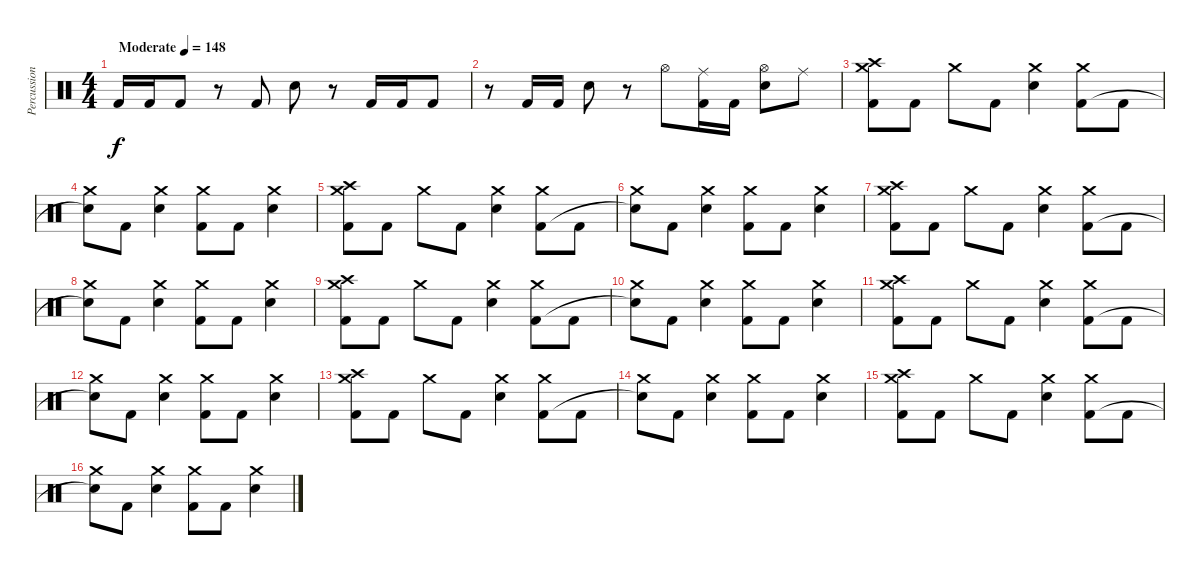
\track ("Percussion" "Percussion") {instrument percussion}
\staff {score}
\articulation defaults
\ts (4 4)
\tempo (148 "Moderate")
\clef neutral
\ks c "Kick (hit) 2".16{dy f volume 2} "Kick (hit) 2".16{volume 12} "Kick (hit) 2".8
r.8 "Kick (hit) 2".8 "Electric Snare (hit)".8 r.8 "Kick (hit) 2".16 "Kick (hit) 2".16 "Kick (hit) 2".8 |
r.8 "Kick (hit) 2".16 "Kick (hit) 2".16 "Electric Snare (hit)".8 r.8 "Hi-Hat (open)".8 ("Ride (middle)" "Kick (hit) 2").16 "Kick (hit) 2".16 ("Hi-Hat (open)" "Electric Snare (hit)").8 "Ride (middle)".8 |
("Crash medium (hit)" "Crash high (hit)" "Kick (hit) 2").8 "Kick (hit) 2".8 "Crash medium (hit)".8 "Kick (hit) 2".8 ("Crash medium (hit)" "Electric Snare (hit)").4 ("Crash medium (hit)" "Kick (hit) 2").8 "Kick (hit) 2".8 |
("Crash medium (hit)" "Snare (hit)"{t}).8 "Kick (hit) 2".8 ("Crash medium (hit)" "Electric Snare (hit)").4 ("Crash medium (hit)" "Kick (hit) 2").8 "Kick (hit) 2".8 ("Crash medium (hit)" "Electric Snare (hit)").4 |
("Crash medium (hit)" "Crash high (hit)" "Kick (hit) 2").8 "Kick (hit) 2".8 "Crash medium (hit)".8 "Kick (hit) 2".8 ("Crash medium (hit)" "Electric Snare (hit)").4 ("Crash medium (hit)" "Kick (hit) 2").8 "Kick (hit) 2".8 |
("Crash medium (hit)" "Snare (hit)"{t}).8 "Kick (hit) 2".8 ("Crash medium (hit)" "Electric Snare (hit)").4 ("Crash medium (hit)" "Kick (hit) 2").8 "Kick (hit) 2".8 ("Crash medium (hit)" "Electric Snare (hit)").4 |
("Crash medium (hit)" "Crash high (hit)" "Kick (hit) 2").8 "Kick (hit) 2".8 "Crash medium (hit)".8 "Kick (hit) 2".8 ("Crash medium (hit)" "Electric Snare (hit)").4 ("Crash medium (hit)" "Kick (hit) 2").8 "Kick (hit) 2".8 |
("Crash medium (hit)" "Snare (hit)"{t}).8 "Kick (hit) 2".8 ("Crash medium (hit)" "Electric Snare (hit)").4 ("Crash medium (hit)" "Kick (hit) 2").8 "Kick (hit) 2".8 ("Crash medium (hit)" "Electric Snare (hit)").4 |
("Crash medium (hit)" "Crash high (hit)" "Kick (hit) 2").8 "Kick (hit) 2".8 "Crash medium (hit)".8 "Kick (hit) 2".8 ("Crash medium (hit)" "Electric Snare (hit)").4 ("Crash medium (hit)" "Kick (hit) 2").8 "Kick (hit) 2".8 |
("Crash medium (hit)" "Snare (hit)"{t}).8 "Kick (hit) 2".8 ("Crash medium (hit)" "Electric Snare (hit)").4 ("Crash medium (hit)" "Kick (hit) 2").8 "Kick (hit) 2".8 ("Crash medium (hit)" "Electric Snare (hit)").4 |
("Crash medium (hit)" "Crash high (hit)" "Kick (hit) 2").8 "Kick (hit) 2".8 "Crash medium (hit)".8 "Kick (hit) 2".8 ("Crash medium (hit)" "Electric Snare (hit)").4 ("Crash medium (hit)" "Kick (hit) 2").8 "Kick (hit) 2".8 |
("Crash medium (hit)" "Snare (hit)"{t}).8 "Kick (hit) 2".8 ("Crash medium (hit)" "Electric Snare (hit)").4 ("Crash medium (hit)" "Kick (hit) 2").8 "Kick (hit) 2".8 ("Crash medium (hit)" "Electric Snare (hit)").4 |
("Crash medium (hit)" "Crash high (hit)" "Kick (hit) 2").8 "Kick (hit) 2".8 "Crash medium (hit)".8 "Kick (hit) 2".8 ("Crash medium (hit)" "Electric Snare (hit)").4 ("Crash medium (hit)" "Kick (hit) 2").8 "Kick (hit) 2".8 |
("Crash medium (hit)" "Snare (hit)"{t}).8 "Kick (hit) 2".8 ("Crash medium (hit)" "Electric Snare (hit)").4 ("Crash medium (hit)" "Kick (hit) 2").8 "Kick (hit) 2".8 ("Crash medium (hit)" "Electric Snare (hit)").4 |
("Crash medium (hit)" "Crash high (hit)" "Kick (hit) 2").8 "Kick (hit) 2".8 "Crash medium (hit)".8 "Kick (hit) 2".8 ("Crash medium (hit)" "Electric Snare (hit)").4 ("Crash medium (hit)" "Kick (hit) 2").8 "Kick (hit) 2".8 |
("Crash medium (hit)" "Snare (hit)"{t}).8 "Kick (hit) 2".8 ("Crash medium (hit)" "Electric Snare (hit)").4 ("Crash medium (hit)" "Kick (hit) 2").8 "Kick (hit) 2".8 ("Crash medium (hit)" "Electric Snare (hit)").4
